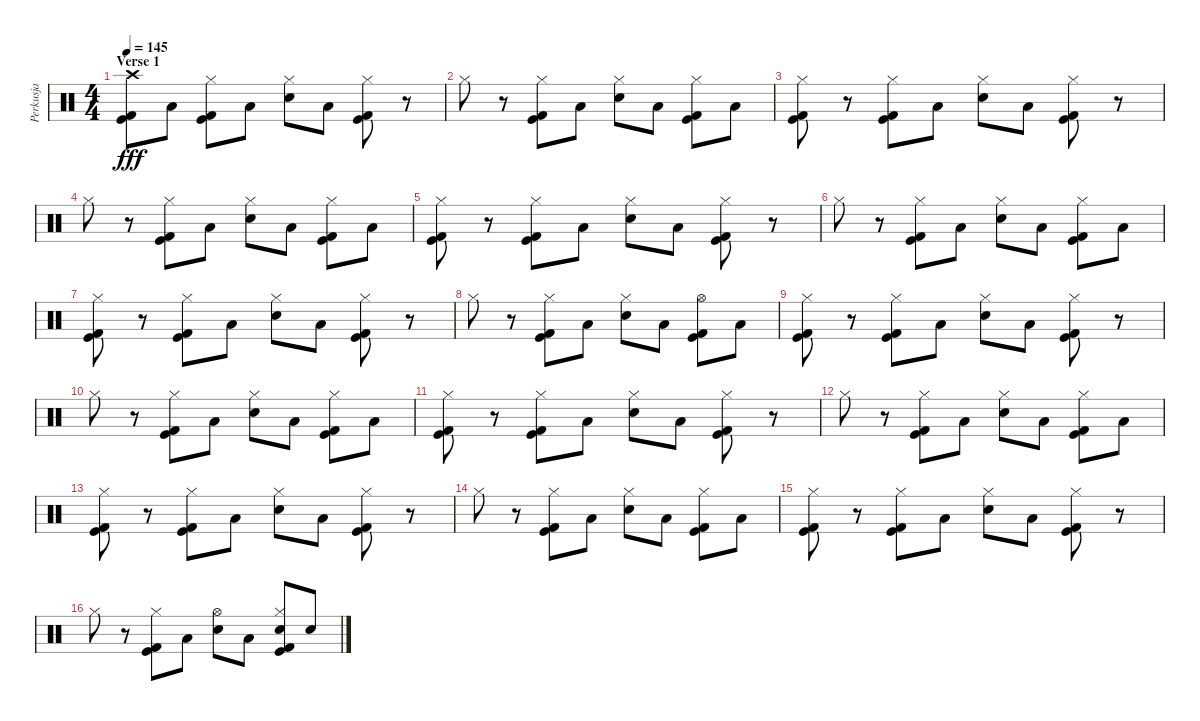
\track ("Perkusja" "Perkusja") {instrument percussion}
\staff {score}
\articulation defaults
\ts (4 4)
\section ("" "Verse 1")
\tempo 145
\clef neutral
\ks c
("Crash high (hit)" "Kick (hit)" "Kick (hit) 2").8{dy fff} "Low Floor Tom (hit)".8 ("Hi-Hat (closed)" "Kick (hit)" "Kick (hit) 2").8 "Low Floor Tom (hit)".8 ("Hi-Hat (closed)" "Electric Snare (hit)").8 "Low Floor Tom (hit)".8 ("Hi-Hat (closed)" "Kick (hit)" "Kick (hit) 2").8 r.8 |
"Hi-Hat (closed)".8 r.8 ("Hi-Hat (closed)" "Kick (hit)" "Kick (hit) 2").8 "Low Floor Tom (hit)".8 ("Hi-Hat (closed)" "Electric Snare (hit)").8 "Low Floor Tom (hit)".8 ("Hi-Hat (closed)" "Kick (hit)" "Kick (hit) 2").8 "Low Floor Tom (hit)".8 |
("Hi-Hat (closed)" "Kick (hit)" "Kick (hit) 2").8 r.8 ("Hi-Hat (closed)" "Kick (hit)" "Kick (hit) 2").8 "Low Floor Tom (hit)".8 ("Hi-Hat (closed)" "Electric Snare (hit)").8 "Low Floor Tom (hit)".8 ("Hi-Hat (closed)" "Kick (hit)" "Kick (hit) 2").8 r.8 |
"Hi-Hat (closed)".8 r.8 ("Hi-Hat (closed)" "Kick (hit)" "Kick (hit) 2").8 "Low Floor Tom (hit)".8 ("Hi-Hat (closed)" "Electric Snare (hit)").8 "Low Floor Tom (hit)".8 ("Hi-Hat (closed)" "Kick (hit)" "Kick (hit) 2").8 "Low Floor Tom (hit)".8 |
("Hi-Hat (closed)" "Kick (hit)" "Kick (hit) 2").8 r.8 ("Hi-Hat (closed)" "Kick (hit)" "Kick (hit) 2").8 "Low Floor Tom (hit)".8 ("Hi-Hat (closed)" "Electric Snare (hit)").8 "Low Floor Tom (hit)".8 ("Hi-Hat (closed)" "Kick (hit)" "Kick (hit) 2").8 r.8 |
"Hi-Hat (closed)".8 r.8 ("Hi-Hat (closed)" "Kick (hit)" "Kick (hit) 2").8 "Low Floor Tom (hit)".8 ("Hi-Hat (closed)" "Electric Snare (hit)").8 "Low Floor Tom (hit)".8 ("Hi-Hat (closed)" "Kick (hit)" "Kick (hit) 2").8 "Low Floor Tom (hit)".8 |
("Hi-Hat (closed)" "Kick (hit)" "Kick (hit) 2").8 r.8 ("Hi-Hat (closed)" "Kick (hit)" "Kick (hit) 2").8 "Low Floor Tom (hit)".8 ("Hi-Hat (closed)" "Electric Snare (hit)").8 "Low Floor Tom (hit)".8 ("Hi-Hat (closed)" "Kick (hit)" "Kick (hit) 2").8 r.8 |
"Hi-Hat (closed)".8 r.8 ("Hi-Hat (closed)" "Kick (hit)" "Kick (hit) 2").8 "Low Floor Tom (hit)".8 ("Hi-Hat (closed)" "Electric Snare (hit)").8 "Low Floor Tom (hit)".8 ("Hi-Hat (open)" "Kick (hit)" "Kick (hit) 2").8 "Low Floor Tom (hit)".8 |
("Hi-Hat (closed)" "Kick (hit)" "Kick (hit) 2").8 r.8 ("Hi-Hat (closed)" "Kick (hit)" "Kick (hit) 2").8 "Low Floor Tom (hit)".8 ("Hi-Hat (closed)" "Electric Snare (hit)").8 "Low Floor Tom (hit)".8 ("Hi-Hat (closed)" "Kick (hit)" "Kick (hit) 2").8 r.8 |
"Hi-Hat (closed)".8 r.8 ("Hi-Hat (closed)" "Kick (hit)" "Kick (hit) 2").8 "Low Floor Tom (hit)".8 ("Hi-Hat (closed)" "Electric Snare (hit)").8 "Low Floor Tom (hit)".8 ("Hi-Hat (closed)" "Kick (hit)" "Kick (hit) 2").8 "Low Floor Tom (hit)".8 |
("Hi-Hat (closed)" "Kick (hit)" "Kick (hit) 2").8 r.8 ("Hi-Hat (closed)" "Kick (hit)" "Kick (hit) 2").8 "Low Floor Tom (hit)".8 ("Hi-Hat (closed)" "Electric Snare (hit)").8 "Low Floor Tom (hit)".8 ("Hi-Hat (closed)" "Kick (hit)" "Kick (hit) 2").8 r.8 |
"Hi-Hat (closed)".8 r.8 ("Hi-Hat (closed)" "Kick (hit)" "Kick (hit) 2").8 "Low Floor Tom (hit)".8 ("Hi-Hat (closed)" "Electric Snare (hit)").8 "Low Floor Tom (hit)".8 ("Hi-Hat (closed)" "Kick (hit)" "Kick (hit) 2").8 "Low Floor Tom (hit)".8 |
("Hi-Hat (closed)" "Kick (hit)" "Kick (hit) 2").8 r.8 ("Hi-Hat (closed)" "Kick (hit)" "Kick (hit) 2").8 "Low Floor Tom (hit)".8 ("Hi-Hat (closed)" "Electric Snare (hit)").8 "Low Floor Tom (hit)".8 ("Hi-Hat (closed)" "Kick (hit)" "Kick (hit) 2").8 r.8 |
"Hi-Hat (closed)".8 r.8 ("Hi-Hat (closed)" "Kick (hit)" "Kick (hit) 2").8 "Low Floor Tom (hit)".8 ("Hi-Hat (closed)" "Electric Snare (hit)").8 "Low Floor Tom (hit)".8 ("Hi-Hat (closed)" "Kick (hit)" "Kick (hit) 2").8 "Low Floor Tom (hit)".8 |
("Hi-Hat (closed)" "Kick (hit)" "Kick (hit) 2").8 r.8 ("Hi-Hat (closed)" "Kick (hit)" "Kick (hit) 2").8 "Low Floor Tom (hit)".8 ("Hi-Hat (closed)" "Electric Snare (hit)").8 "Low Floor Tom (hit)".8 ("Hi-Hat (closed)" "Kick (hit)" "Kick (hit) 2").8 r.8 |
"Hi-Hat (closed)".8 r.8 ("Hi-Hat (closed)" "Kick (hit)" "Kick (hit) 2").8 "Low Floor Tom (hit)".8 ("Hi-Hat (open)" "Electric Snare (hit)").8 "Low Floor Tom (hit)".8 ("Hi-Hat (closed)" "Electric Snare (hit)" "Kick (hit)" "Kick (hit) 2").8 "Electric Snare (hit)".8
